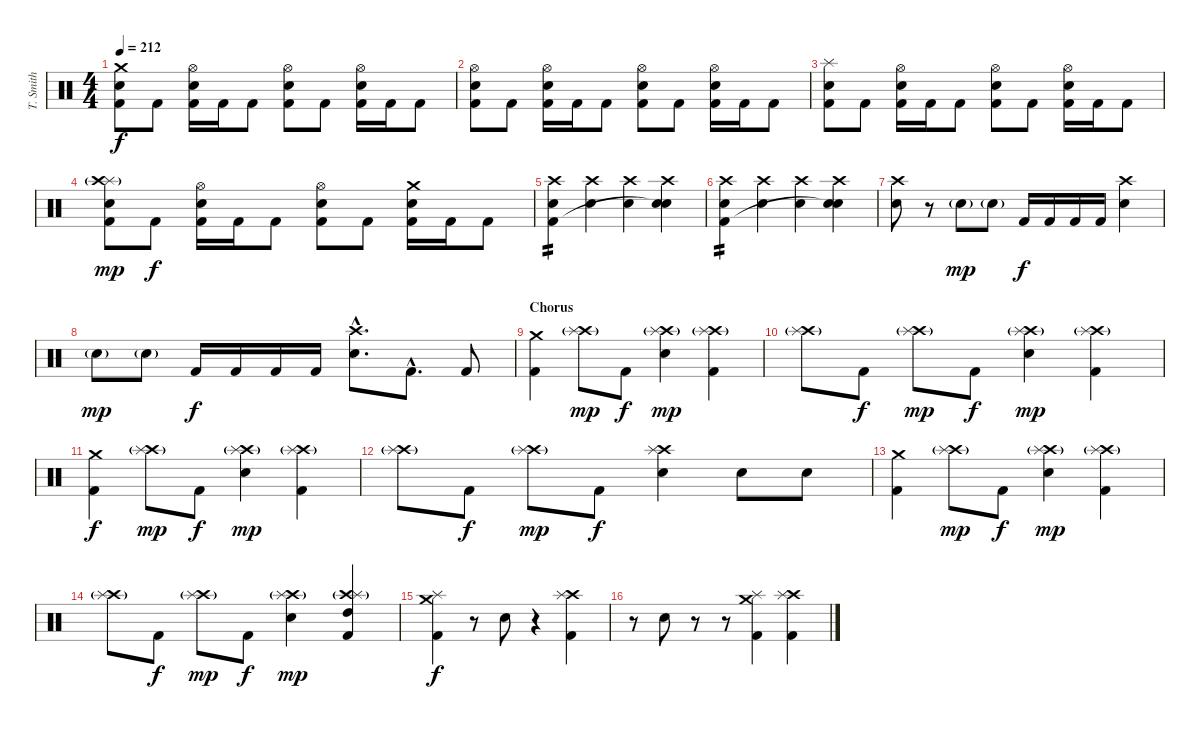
\track ("T. Smith" "T. Smith") {instrument percussion}
\staff {score}
\articulation defaults
\ts (4 4)
\tempo 212
\clef neutral
\ks c
("Crash medium (hit)" "Electric Snare (hit)" "Kick (hit) 2").8{dy f} "Kick (hit) 2".8 ("Hi-Hat (open)" "Electric Snare (hit)" "Kick (hit) 2").16 "Kick (hit) 2".16 "Kick (hit) 2".8 ("Hi-Hat (open)" "Electric Snare (hit)" "Kick (hit) 2").8 "Kick (hit) 2".8 ("Hi-Hat (open)" "Electric Snare (hit)" "Kick (hit) 2").16 "Kick (hit) 2".16 "Kick (hit) 2".8 |
("Hi-Hat (open)" "Electric Snare (hit)" "Kick (hit) 2").8 "Kick (hit) 2".8 ("Hi-Hat (open)" "Electric Snare (hit)" "Kick (hit) 2").16 "Kick (hit) 2".16 "Kick (hit) 2".8 ("Hi-Hat (open)" "Electric Snare (hit)" "Kick (hit) 2").8 "Kick (hit) 2".8 ("Hi-Hat (open)" "Electric Snare (hit)" "Kick (hit) 2").16 "Kick (hit) 2".16 "Kick (hit) 2".8 |
("Splash (hit)" "Electric Snare (hit)" "Kick (hit) 2").8 "Kick (hit) 2".8 ("Hi-Hat (open)" "Electric Snare (hit)" "Kick (hit) 2").16 "Kick (hit) 2".16 "Kick (hit) 2".8 ("Hi-Hat (open)" "Electric Snare (hit)" "Kick (hit) 2").8 "Kick (hit) 2".8 ("Hi-Hat (open)" "Electric Snare (hit)" "Kick (hit) 2").16 "Kick (hit) 2".16 "Kick (hit) 2".8 |
("Splash (hit)" "Crash high (hit)"{g} "Electric Snare (hit)" "Kick (hit) 2").8{dy mp} "Kick (hit) 2".8{dy f} ("Hi-Hat (open)" "Electric Snare (hit)" "Kick (hit) 2").16 "Kick (hit) 2".16 "Kick (hit) 2".8 ("Hi-Hat (open)" "Electric Snare (hit)" "Kick (hit) 2").8 "Kick (hit) 2".8 ("Crash medium (hit)" "Electric Snare (hit)" "Kick (hit) 2").16 "Kick (hit) 2".16 "Kick (hit) 2".8 |
("Crash high (hit)" "Electric Snare (hit)" "Kick (hit) 2").4{tp 2} ("Crash high (hit)" "Electric Snare (hit)").4 ("Crash high (hit)" "Electric Snare (hit)").4 ("Crash high (hit)" "Electric Snare (hit)" "Snare (hit)"{t}).4 |
("Crash high (hit)" "Electric Snare (hit)" "Kick (hit) 2").4{tp 2} ("Crash high (hit)" "Electric Snare (hit)").4 ("Crash high (hit)" "Electric Snare (hit)").4 ("Crash high (hit)" "Electric Snare (hit)" "Snare (hit)"{t}).4 |
("Crash high (hit)" "Electric Snare (hit)").8 r.8 "Electric Snare (hit)"{g}.8{dy mp} "Electric Snare (hit)"{g}.8 "Kick (hit) 2".16{dy f} "Kick (hit) 2".16 "Kick (hit) 2".16 "Kick (hit) 2".16 ("Crash high (hit)" "Electric Snare (hit)").4 |
"Electric Snare (hit)"{g}.8{dy mp} "Electric Snare (hit)"{g}.8 "Kick (hit) 2".16{dy f} "Kick (hit) 2".16 "Kick (hit) 2".16 "Kick (hit) 2".16 ("Crash high (hit)"{hac} "Electric Snare (hit)"{hac}).8{d} "Kick (hit) 2"{hac}.8{d} "Kick (hit) 2".8 |
\section ("" "Chorus")
("Crash medium (hit)" "Kick (hit) 2").4 ("Crash high (hit)"{g} "Splash (hit)").8{dy mp} "Kick (hit) 2".8{dy f} ("Crash high (hit)"{g} "Splash (hit)" "Electric Snare (hit)").4{dy mp} ("Crash high (hit)"{g} "Splash (hit)" "Kick (hit) 2").4 |
("Crash high (hit)"{g} "Splash (hit)").8 "Kick (hit) 2".8{dy f} ("Crash high (hit)"{g} "Splash (hit)").8{dy mp} "Kick (hit) 2".8{dy f} ("Crash high (hit)"{g} "Splash (hit)" "Electric Snare (hit)").4{dy mp} ("Crash high (hit)"{g} "Splash (hit)" "Kick (hit) 2").4 |
("Crash medium (hit)" "Kick (hit) 2").4{dy f} ("Crash high (hit)"{g} "Splash (hit)").8{dy mp} "Kick (hit) 2".8{dy f} ("Crash high (hit)"{g} "Splash (hit)" "Electric Snare (hit)").4{dy mp} ("Crash high (hit)"{g} "Splash (hit)" "Kick (hit) 2").4 |
("Crash high (hit)"{g} "Splash (hit)").8 "Kick (hit) 2".8{dy f} ("Crash high (hit)"{g} "Splash (hit)").8{dy mp} "Kick (hit) 2".8{dy f} ("Crash high (hit)" "Splash (hit)" "Electric Snare (hit)").4 "Electric Snare (hit)".8 "Electric Snare (hit)".8 |
("Crash medium (hit)" "Kick (hit) 2").4 ("Crash high (hit)"{g} "Splash (hit)").8{dy mp} "Kick (hit) 2".8{dy f} ("Crash high (hit)"{g} "Splash (hit)" "Electric Snare (hit)").4{dy mp} ("Crash high (hit)"{g} "Splash (hit)" "Kick (hit) 2").4 |
("Crash high (hit)"{g} "Splash (hit)").8 "Kick (hit) 2".8{dy f} ("Crash high (hit)"{g} "Splash (hit)").8{dy mp} "Kick (hit) 2".8{dy f} ("Crash high (hit)"{g} "Splash (hit)" "Electric Snare (hit)").4{dy mp} ("Crash high (hit)"{g} "Splash (hit)" "High Tom (hit)" "Kick (hit) 2").4 |
("Crash medium (hit)" "Splash (hit)" "Kick (hit) 2").4{dy f} r.8 "Electric Snare (hit)".8 r.4 ("Crash high (hit)" "Splash (hit)" "Kick (hit) 2").4 |
r.8 "Electric Snare (hit)".8 r.8 r.8 ("Crash medium (hit)" "Splash (hit)" "Kick (hit) 2").4 ("Crash high (hit)" "Splash (hit)" "Kick (hit) 2").4
